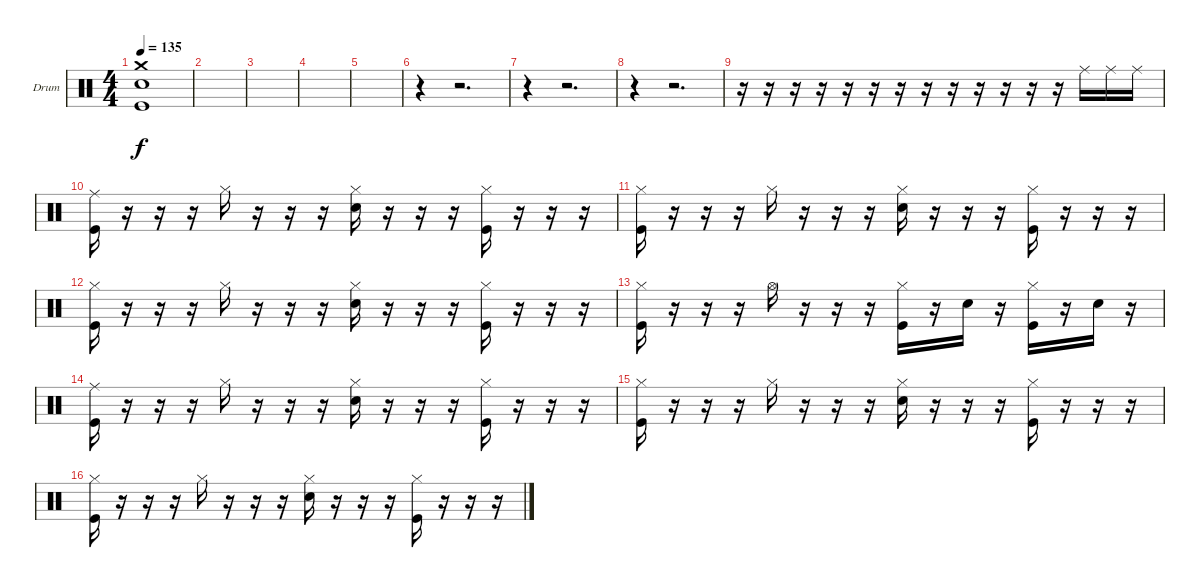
\defaultSystemsLayout 4
\bracketExtendMode groupsimilarinstruments
\firstSystemTrackNameOrientation horizontal
\otherSystemsTrackNameOrientation horizontal
\track ("Drum" "Drum") {instrument percussion}
\staff {score}
\articulation defaults
\ts (4 4)
\tempo 135
\clef neutral
\ks c
("Crash medium (hit)" "Kick (hit)" "Snare (hit) 2").1{dy f} |
|
|
|
|
r.4 r.2{d} |
r.4 r.2{d} |
r.4 r.2{d} |
r.16 r.16 r.16 r.16 r.16 r.16 r.16 r.16 r.16 r.16 r.16 r.16 r.16 "Ride (middle)".16 "Ride (middle)".16 "Ride (middle)".16 |
("Ride (middle)" "Kick (hit)").16 r.16 r.16 r.16 "Hi-Hat (closed)".16 r.16 r.16 r.16 ("Hi-Hat (closed)" "Snare (hit) 2").16 r.16 r.16 r.16 ("Hi-Hat (closed)" "Kick (hit)").16 r.16 r.16 r.16 |
("Hi-Hat (closed)" "Kick (hit)").16 r.16 r.16 r.16 "Hi-Hat (closed)".16 r.16 r.16 r.16 ("Hi-Hat (closed)" "Snare (hit) 2").16 r.16 r.16 r.16 ("Hi-Hat (closed)" "Kick (hit)").16 r.16 r.16 r.16 |
("Hi-Hat (closed)" "Kick (hit)").16 r.16 r.16 r.16 "Hi-Hat (closed)".16 r.16 r.16 r.16 ("Hi-Hat (closed)" "Snare (hit) 2").16 r.16 r.16 r.16 ("Hi-Hat (closed)" "Kick (hit)").16 r.16 r.16 r.16 |
("Hi-Hat (closed)" "Kick (hit)").16 r.16 r.16 r.16 "Hi-Hat (open)".16 r.16 r.16 r.16 ("Hi-Hat (closed)" "Kick (hit)").16 r.16 "Snare (hit) 2".16 r.16 ("Hi-Hat (closed)" "Kick (hit)").16 r.16 "Snare (hit) 2".16 r.16 |
("Ride (middle)" "Kick (hit)").16 r.16 r.16 r.16 "Hi-Hat (closed)".16 r.16 r.16 r.16 ("Hi-Hat (closed)" "Snare (hit) 2").16 r.16 r.16 r.16 ("Hi-Hat (closed)" "Kick (hit)").16 r.16 r.16 r.16 |
("Hi-Hat (closed)" "Kick (hit)").16 r.16 r.16 r.16 "Hi-Hat (closed)".16 r.16 r.16 r.16 ("Hi-Hat (closed)" "Snare (hit) 2").16 r.16 r.16 r.16 ("Hi-Hat (closed)" "Kick (hit)").16 r.16 r.16 r.16 |
("Hi-Hat (closed)" "Kick (hit)").16 r.16 r.16 r.16 "Hi-Hat (closed)".16 r.16 r.16 r.16 ("Hi-Hat (closed)" "Snare (hit) 2").16 r.16 r.16 r.16 ("Hi-Hat (closed)" "Kick (hit)").16 r.16 r.16 r.16
